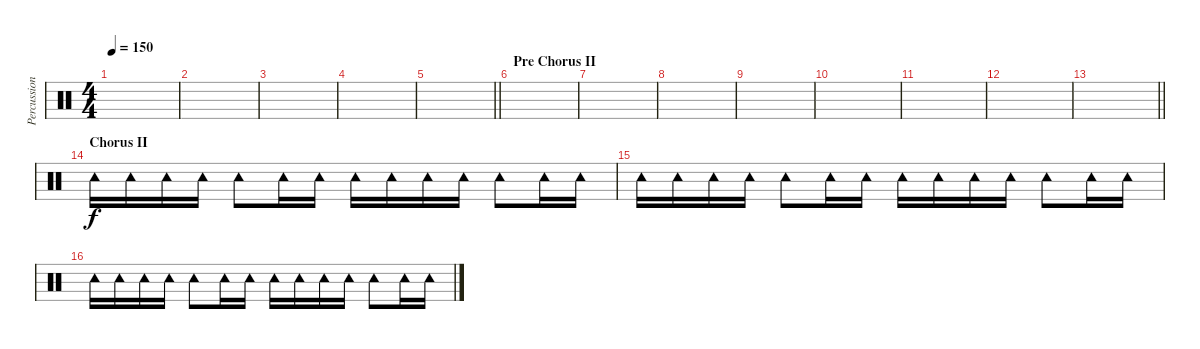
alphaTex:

\track ("Percussion" "Percussion") {instrument percussion}
\staff {score}
\articulation defaults
\ts (4 4)
\tempo 150
\clef neutral
\ks c
|
|
|
|
\barLineRight lightlight
|
\section ("" "Pre Chorus II")
|
|
|
|
|
|
|
\barLineRight lightlight
|
\section ("" "Chorus II")
"Tambourine (hit)".16 "Tambourine (hit)".16 "Tambourine (hit)".16 "Tambourine (hit)".16 "Tambourine (hit)".8 "Tambourine (hit)".16 "Tambourine (hit)".16 "Tambourine (hit)".16 "Tambourine (hit)".16 "Tambourine (hit)".16 "Tambourine (hit)".16 "Tambourine (hit)".8 "Tambourine (hit)".16 "Tambourine (hit)".16 |
"Tambourine (hit)".16 "Tambourine (hit)".16 "Tambourine (hit)".16 "Tambourine (hit)".16 "Tambourine (hit)".8 "Tambourine (hit)".16 "Tambourine (hit)".16 "Tambourine (hit)".16 "Tambourine (hit)".16 "Tambourine (hit)".16 "Tambourine (hit)".16 "Tambourine (hit)".8 "Tambourine (hit)".16 "Tambourine (hit)".16 |
"Tambourine (hit)".16 "Tambourine (hit)".16 "Tambourine (hit)".16 "Tambourine (hit)".16 "Tambourine (hit)".8 "Tambourine (hit)".16 "Tambourine (hit)".16 "Tambourine (hit)".16 "Tambourine (hit)".16 "Tambourine (hit)".16 "Tambourine (hit)".16 "Tambourine (hit)".8 "Tambourine (hit)".16 "Tambourine (hit)".16
